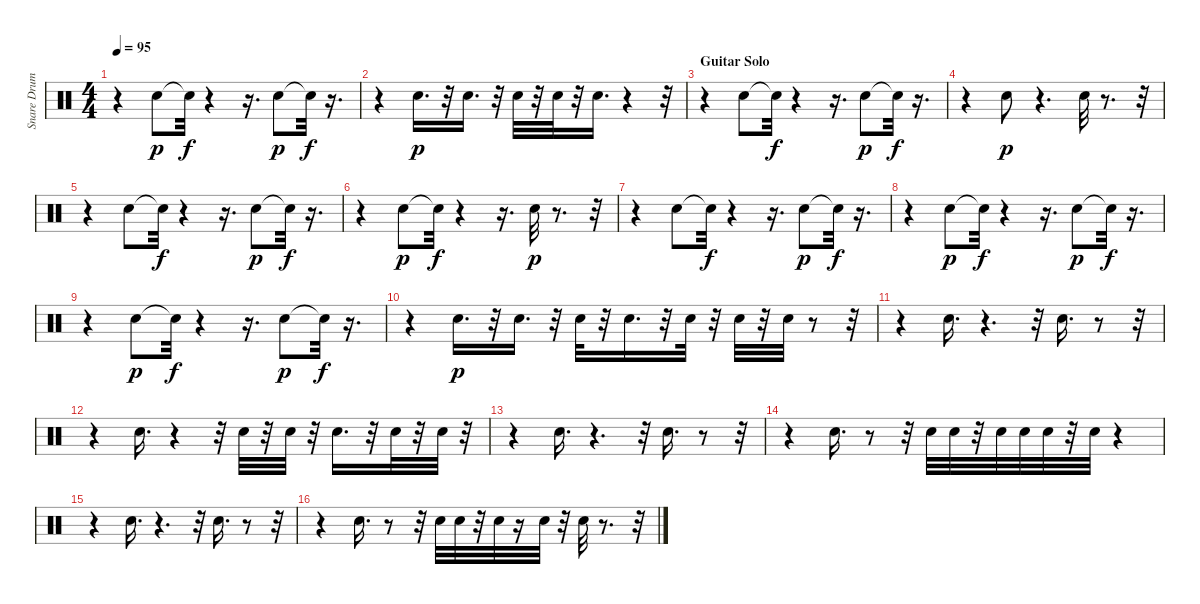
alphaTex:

\track ("Snare Drum" "Snare Drum") {instrument percussion}
\staff {score}
\articulation defaults
\ts (4 4)
\tempo 95
\clef neutral
\ks c
r.4{dy p} "Snare (hit) 2".8 "Snare (hit)"{t}.32{dy f} r.4 r.16{d} "Snare (hit) 2".8{dy p} "Snare (hit)"{t}.32{dy f} r.16{d} |
r.4 "Snare (hit) 2".16{d dy p} r.32 "Snare (hit) 2".16{d} r.32 "Snare (hit) 2".32 r.32 "Snare (hit) 2".32 r.32 "Snare (hit) 2".16{d} r.4 r.32 |
\section ("" "Guitar Solo")
r.4 "Snare (hit) 2".8 "Snare (hit)"{t}.32{dy f} r.4 r.16{d} "Snare (hit) 2".8{dy p} "Snare (hit)"{t}.32{dy f} r.16{d} |
r.4 "Snare (hit) 2".8{dy p} r.4{d} "Snare (hit) 2".32 r.8{d} r.32 |
r.4 "Snare (hit) 2".8 "Snare (hit)"{t}.32{dy f} r.4 r.16{d} "Snare (hit) 2".8{dy p} "Snare (hit)"{t}.32{dy f} r.16{d} |
r.4 "Snare (hit) 2".8{dy p} "Snare (hit)"{t}.32{dy f} r.4 r.16{d} "Snare (hit) 2".32{dy p} r.8{d} r.32 |
r.4 "Snare (hit) 2".8 "Snare (hit)"{t}.32{dy f} r.4 r.16{d} "Snare (hit) 2".8{dy p} "Snare (hit)"{t}.32{dy f} r.16{d} |
r.4 "Snare (hit) 2".8{dy p} "Snare (hit)"{t}.32{dy f} r.4 r.16{d} "Snare (hit) 2".8{dy p} "Snare (hit)"{t}.32{dy f} r.16{d} |
r.4 "Snare (hit) 2".8{dy p} "Snare (hit)"{t}.32{dy f} r.4 r.16{d} "Snare (hit) 2".8{dy p} "Snare (hit)"{t}.32{dy f} r.16{d} |
r.4 "Snare (hit) 2".16{d dy p} r.32 "Snare (hit) 2".16{d} r.32 "Snare (hit) 2".32 r.32 "Snare (hit) 2".16{d} r.32 "Snare (hit) 2".32 r.32 "Snare (hit) 2".32 r.32 "Snare (hit) 2".32 r.8 r.32 |
r.4 "Snare (hit) 2".16{d} r.4{d} r.32 "Snare (hit) 2".16{d} r.8 r.32 |
r.4 "Snare (hit) 2".16{d} r.4 r.32 "Snare (hit) 2".32 r.32 "Snare (hit) 2".32 r.32 "Snare (hit) 2".16{d} r.32 "Snare (hit) 2".32 r.32 "Snare (hit) 2".32 r.32 |
r.4 "Snare (hit) 2".16{d} r.4{d} r.32 "Snare (hit) 2".16{d} r.8 r.32 |
r.4 "Snare (hit) 2".16{d} r.8 r.32 "Snare (hit) 2".32 "Snare (hit) 2".32 r.32 "Snare (hit) 2".32 "Snare (hit) 2".32 "Snare (hit) 2".32 r.32 "Snare (hit) 2".32 r.4 |
r.4 "Snare (hit) 2".16{d} r.4{d} r.32 "Snare (hit) 2".16{d} r.8 r.32 |
r.4 "Snare (hit) 2".16{d} r.8 r.32 "Snare (hit) 2".32 "Snare (hit) 2".32 r.32 "Snare (hit) 2".32 r.16 "Snare (hit) 2".32 r.32 "Snare (hit) 2".32 r.8{d} r.32
